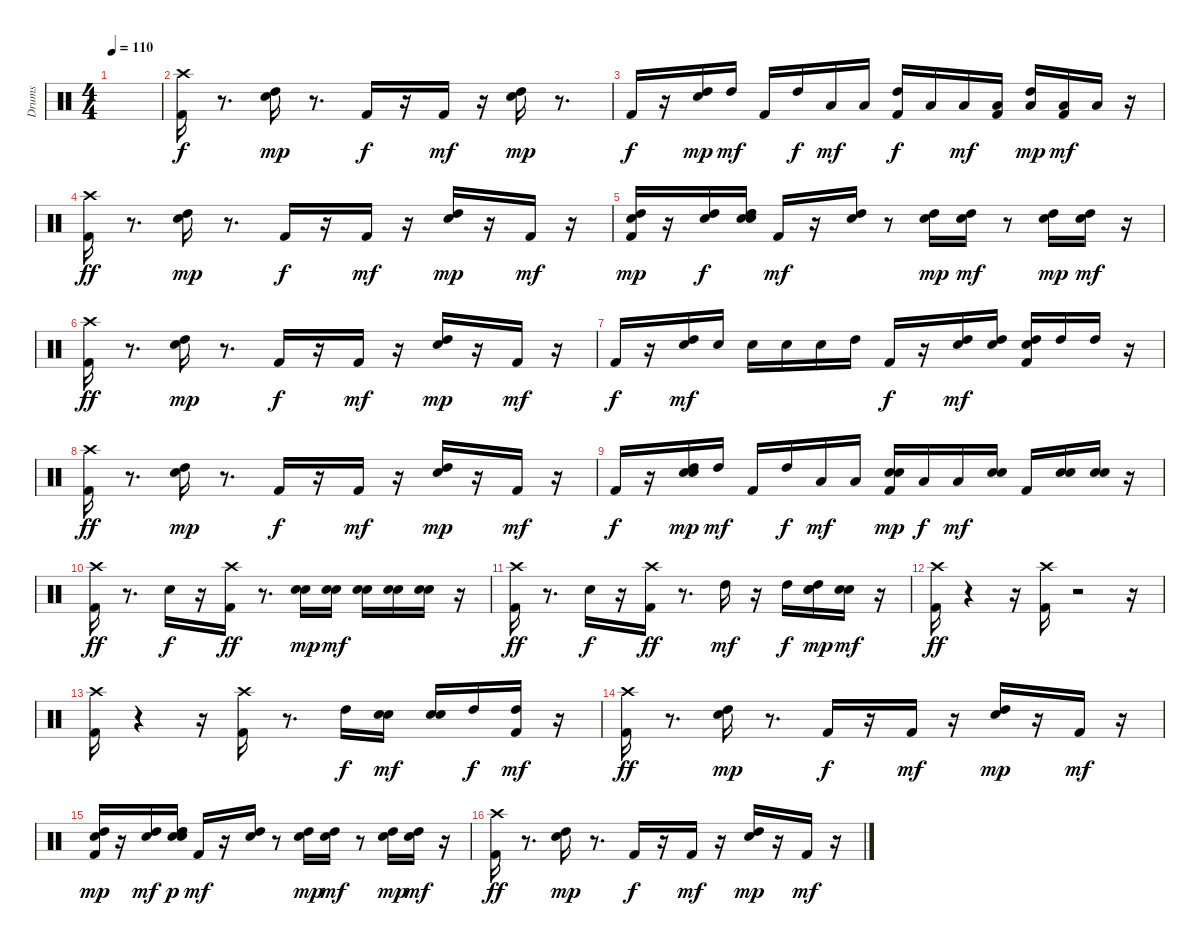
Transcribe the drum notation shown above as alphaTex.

\track ("Drums" "Drums") {instrument percussion}
\staff {score}
\articulation defaults
\ts (4 4)
\tempo 110
\clef neutral
\ks c
|
("Crash high (hit)" "Kick (hit) 2").16 r.8{d} ("High Tom (hit)" "Snare (hit) 2").16{dy mp} r.8{d} "Kick (hit) 2".16{dy f} r.16 "Kick (hit) 2".16{dy mf} r.16 ("High Tom (hit)" "Snare (hit) 2").16{dy mp} r.8{d} |
"Kick (hit) 2".16{dy f} r.16 ("Snare (hit) 2" "High Tom (hit)").16{dy mp} "High Tom (hit)".16{dy mf} "Kick (hit) 2".16 "High Tom (hit)".16{dy f} "Low Tom (hit)".16{dy mf} "Low Tom (hit)".16 ("High Tom (hit)" "Kick (hit) 2").16{dy f} "Low Tom (hit)".16 "Low Tom (hit)".16{dy mf} ("Low Tom (hit)" "Kick (hit) 2").16 ("Low Tom (hit)" "High Tom (hit)").16{dy mp} ("Low Tom (hit)" "Kick (hit) 2").16{dy mf} "Low Tom (hit)".16 r.16 |
("Crash high (hit)" "Kick (hit) 2").16{dy ff} r.8{d} ("High Tom (hit)" "Snare (hit) 2").16{dy mp} r.8{d} "Kick (hit) 2".16{dy f} r.16 "Kick (hit) 2".16{dy mf} r.16 ("High Tom (hit)" "Snare (hit) 2").16{dy mp} r.16 "Kick (hit) 2".16{dy mf} r.16 |
("High Tom (hit)" "Snare (hit) 2" "Kick (hit) 2").16{dy mp} r.16 ("Snare (hit) 2" "High Tom (hit)").16{dy f} ("Snare (hit) 2" "High Tom (hit)" "Snare (hit) 2" "High Tom (hit)").16 "Kick (hit) 2".16{dy mf} r.16 ("High Tom (hit)" "Snare (hit) 2").16 r.8 ("High Tom (hit)" "Snare (hit) 2").16{dy mp} ("High Tom (hit)" "Snare (hit) 2").16{dy mf} r.8 ("High Tom (hit)" "Snare (hit) 2").16{dy mp} ("High Tom (hit)" "Snare (hit) 2").16{dy mf} r.16 |
("Crash high (hit)" "Kick (hit) 2").16{dy ff} r.8{d} ("High Tom (hit)" "Snare (hit) 2").16{dy mp} r.8{d} "Kick (hit) 2".16{dy f} r.16 "Kick (hit) 2".16{dy mf} r.16 ("High Tom (hit)" "Snare (hit) 2").16{dy mp} r.16 "Kick (hit) 2".16{dy mf} r.16 |
"Kick (hit) 2".16{dy f} r.16 ("High Tom (hit)" "Snare (hit) 2").16{dy mf} "Snare (hit) 2".16 "Snare (hit) 2".16 "Snare (hit) 2".16 "Snare (hit) 2".16 "High Tom (hit)".16 "Kick (hit) 2".16{dy f} r.16 ("High Tom (hit)" "Snare (hit) 2").16{dy mf} ("High Tom (hit)" "Snare (hit) 2").16 ("High Tom (hit)" "Snare (hit) 2" "Kick (hit) 2").16 "High Tom (hit)".16 "High Tom (hit)".16 r.16 |
("Crash high (hit)" "Kick (hit) 2").16{dy ff} r.8{d} ("High Tom (hit)" "Snare (hit) 2").16{dy mp} r.8{d} "Kick (hit) 2".16{dy f} r.16 "Kick (hit) 2".16{dy mf} r.16 ("High Tom (hit)" "Snare (hit) 2").16{dy mp} r.16 "Kick (hit) 2".16{dy mf} r.16 |
"Kick (hit) 2".16{dy f} r.16 ("Electric Snare (hit)" "Snare (hit) 2" "High Tom (hit)").16{dy mp} "High Tom (hit)".16{dy mf} "Kick (hit) 2".16 "High Tom (hit)".16{dy f} "Low Tom (hit)".16{dy mf} "Low Tom (hit)".16 ("Snare (hit) 2" "Electric Snare (hit)" "Kick (hit) 2").16{dy mp} "Low Tom (hit)".16{dy f} "Low Tom (hit)".16{dy mf} ("Electric Snare (hit)" "Snare (hit) 2").16 "Kick (hit) 2".16 ("Electric Snare (hit)" "Snare (hit) 2").16 ("Electric Snare (hit)" "Snare (hit) 2").16 r.16 |
("Crash high (hit)" "Kick (hit) 2").16{dy ff} r.8{d} "Snare (hit) 2".16{dy f} r.16 ("Crash high (hit)" "Kick (hit) 2").16{dy ff} r.8{d} ("Electric Snare (hit)" "Snare (hit) 2").16{dy mp} ("Electric Snare (hit)" "Snare (hit) 2").16{dy mf} ("Electric Snare (hit)" "Snare (hit) 2").16 ("Electric Snare (hit)" "Snare (hit) 2").16 ("Electric Snare (hit)" "Snare (hit) 2").16 r.16 |
("Crash high (hit)" "Kick (hit) 2").16{dy ff} r.8{d} "Snare (hit) 2".16{dy f} r.16 ("Crash high (hit)" "Kick (hit) 2").16{dy ff} r.8{d} "High Tom (hit)".16{dy mf} r.16 "High Tom (hit)".16{dy f} ("High Tom (hit)" "Snare (hit) 2" "Electric Snare (hit)").16{dy mp} ("Snare (hit) 2" "Electric Snare (hit)").16{dy mf} r.16 |
("Crash high (hit)" "Kick (hit) 2").16{dy ff} r.4 r.16 ("Crash high (hit)" "Kick (hit) 2").16 r.2 r.16 |
("Crash high (hit)" "Kick (hit) 2").16 r.4 r.16 ("Crash high (hit)" "Kick (hit) 2").16 r.8{d} "High Tom (hit)".16{dy f} ("Snare (hit) 2" "Electric Snare (hit)").16{dy mf} ("Electric Snare (hit)" "Snare (hit) 2").16 "High Tom (hit)".16{dy f} ("Kick (hit) 2" "High Tom (hit)").16{dy mf} r.16 |
("Crash high (hit)" "Kick (hit) 2").16{dy ff} r.8{d} ("High Tom (hit)" "Snare (hit) 2").16{dy mp} r.8{d} "Kick (hit) 2".16{dy f} r.16 "Kick (hit) 2".16{dy mf} r.16 ("High Tom (hit)" "Snare (hit) 2").16{dy mp} r.16 "Kick (hit) 2".16{dy mf} r.16 |
("High Tom (hit)" "Snare (hit) 2" "Kick (hit) 2").16{dy mp} r.16 ("High Tom (hit)" "Snare (hit) 2").16{dy mf} ("Snare (hit) 2" "High Tom (hit)" "Snare (hit) 2" "High Tom (hit)").16{dy p} "Kick (hit) 2".16{dy mf} r.16 ("High Tom (hit)" "Snare (hit) 2").16 r.8 ("High Tom (hit)" "Snare (hit) 2").16{dy mp} ("High Tom (hit)" "Snare (hit) 2").16{dy mf} r.8 ("High Tom (hit)" "Snare (hit) 2").16{dy mp} ("High Tom (hit)" "Snare (hit) 2").16{dy mf} r.16 |
("Crash high (hit)" "Kick (hit) 2").16{dy ff} r.8{d} ("High Tom (hit)" "Snare (hit) 2").16{dy mp} r.8{d} "Kick (hit) 2".16{dy f} r.16 "Kick (hit) 2".16{dy mf} r.16 ("High Tom (hit)" "Snare (hit) 2").16{dy mp} r.16 "Kick (hit) 2".16{dy mf} r.16
